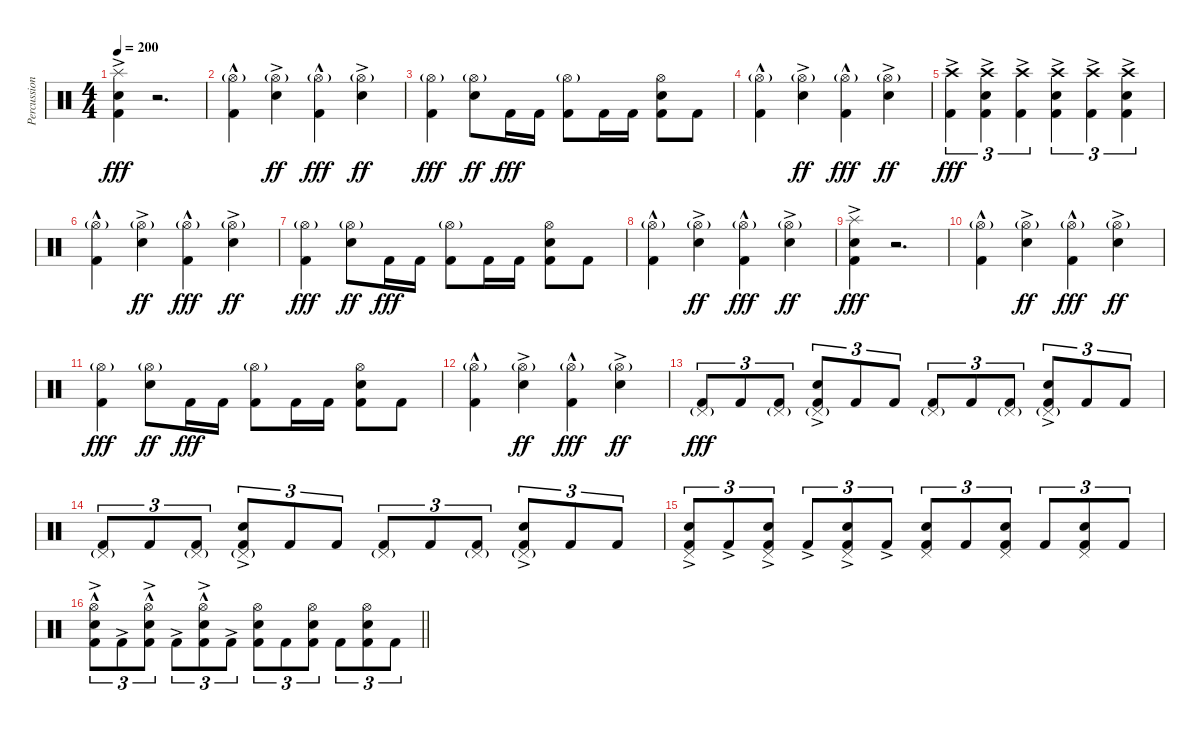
\track ("Percussion , Drums - Travis Smith" "Percussion") {instrument percussion}
\staff {score}
\articulation defaults
\ts (4 4)
\tempo 200
\clef neutral
\ks c
("Splash (hit)" "Electric Snare (hit)"{ac} "Kick (hit) 2").4{dy fff} r.2{d} |
("Hi-Hat (open)"{g} "Kick (hit) 2"{hac}).4 ("Hi-Hat (open)"{g} "Electric Snare (hit)"{ac}).4{dy ff} ("Hi-Hat (open)"{g} "Kick (hit) 2"{hac}).4{dy fff} ("Hi-Hat (open)"{g} "Electric Snare (hit)"{ac}).4{dy ff} |
("Hi-Hat (open)"{g} "Kick (hit) 2").4{dy fff} ("Hi-Hat (open)"{g} "Electric Snare (hit)").8{dy ff} "Kick (hit) 2".16{dy fff} "Kick (hit) 2".16 ("Hi-Hat (open)"{g} "Kick (hit) 2").8 "Kick (hit) 2".16 "Kick (hit) 2".16 ("Hi-Hat (open)" "Electric Snare (hit)" "Kick (hit) 2").8 "Kick (hit) 2".8 |
("Hi-Hat (open)"{g} "Kick (hit) 2"{hac}).4 ("Hi-Hat (open)"{g} "Electric Snare (hit)"{ac}).4{dy ff} ("Hi-Hat (open)"{g} "Kick (hit) 2"{hac}).4{dy fff} ("Hi-Hat (open)"{g} "Electric Snare (hit)"{ac}).4{dy ff} |
("Crash high (hit)"{ac} "Kick (hit) 2").4{tu (3 2) dy fff} ("Crash high (hit)"{ac} "Electric Snare (hit)"{ac} "Kick (hit) 2").4{tu (3 2)} ("Crash high (hit)"{ac} "Kick (hit) 2").4{tu (3 2)} ("Crash high (hit)"{ac} "Electric Snare (hit)"{ac} "Kick (hit) 2").4{tu (3 2)} ("Crash high (hit)"{ac} "Kick (hit) 2").4{tu (3 2)} ("Crash high (hit)"{ac} "Electric Snare (hit)"{ac} "Kick (hit) 2").4{tu (3 2)} |
("Hi-Hat (open)"{g} "Kick (hit) 2"{hac}).4 ("Hi-Hat (open)"{g} "Electric Snare (hit)"{ac}).4{dy ff} ("Hi-Hat (open)"{g} "Kick (hit) 2"{hac}).4{dy fff} ("Hi-Hat (open)"{g} "Electric Snare (hit)"{ac}).4{dy ff} |
("Hi-Hat (open)"{g} "Kick (hit) 2").4{dy fff} ("Hi-Hat (open)"{g} "Electric Snare (hit)").8{dy ff} "Kick (hit) 2".16{dy fff} "Kick (hit) 2".16 ("Hi-Hat (open)"{g} "Kick (hit) 2").8 "Kick (hit) 2".16 "Kick (hit) 2".16 ("Hi-Hat (open)" "Electric Snare (hit)" "Kick (hit) 2").8 "Kick (hit) 2".8 |
("Hi-Hat (open)"{g} "Kick (hit) 2"{hac}).4 ("Hi-Hat (open)"{g} "Electric Snare (hit)"{ac}).4{dy ff} ("Hi-Hat (open)"{g} "Kick (hit) 2"{hac}).4{dy fff} ("Hi-Hat (open)"{g} "Electric Snare (hit)"{ac}).4{dy ff} |
("Splash (hit)" "Electric Snare (hit)"{ac} "Kick (hit) 2").4{dy fff} r.2{d} |
("Hi-Hat (open)"{g} "Kick (hit) 2"{hac}).4 ("Hi-Hat (open)"{g} "Electric Snare (hit)"{ac}).4{dy ff} ("Hi-Hat (open)"{g} "Kick (hit) 2"{hac}).4{dy fff} ("Hi-Hat (open)"{g} "Electric Snare (hit)"{ac}).4{dy ff} |
("Hi-Hat (open)"{g} "Kick (hit) 2").4{dy fff} ("Hi-Hat (open)"{g} "Electric Snare (hit)").8{dy ff} "Kick (hit) 2".16{dy fff} "Kick (hit) 2".16 ("Hi-Hat (open)"{g} "Kick (hit) 2").8 "Kick (hit) 2".16 "Kick (hit) 2".16 ("Hi-Hat (open)" "Electric Snare (hit)" "Kick (hit) 2").8 "Kick (hit) 2".8 |
("Hi-Hat (open)"{g} "Kick (hit) 2"{hac}).4 ("Hi-Hat (open)"{g} "Electric Snare (hit)"{ac}).4{dy ff} ("Hi-Hat (open)"{g} "Kick (hit) 2"{hac}).4{dy fff} ("Hi-Hat (open)"{g} "Electric Snare (hit)"{ac}).4{dy ff} |
("Pedal Hi-Hat (hit)"{g} "Kick (hit) 2").8{tu (3 2) dy fff} "Kick (hit) 2".8{tu (3 2)} ("Pedal Hi-Hat (hit)"{g} "Kick (hit) 2").8{tu (3 2)} ("Pedal Hi-Hat (hit)"{g} "Electric Snare (hit)"{ac} "Kick (hit) 2").8{tu (3 2)} "Kick (hit) 2".8{tu (3 2)} "Kick (hit) 2".8{tu (3 2)} ("Pedal Hi-Hat (hit)"{g} "Kick (hit) 2").8{tu (3 2)} "Kick (hit) 2".8{tu (3 2)} ("Pedal Hi-Hat (hit)"{g} "Kick (hit) 2").8{tu (3 2)} ("Pedal Hi-Hat (hit)"{g} "Electric Snare (hit)"{ac} "Kick (hit) 2").8{tu (3 2)} "Kick (hit) 2".8{tu (3 2)} "Kick (hit) 2".8{tu (3 2)} |
("Pedal Hi-Hat (hit)"{g} "Kick (hit) 2").8{tu (3 2)} "Kick (hit) 2".8{tu (3 2)} ("Pedal Hi-Hat (hit)"{g} "Kick (hit) 2").8{tu (3 2)} ("Pedal Hi-Hat (hit)"{g} "Electric Snare (hit)"{ac} "Kick (hit) 2").8{tu (3 2)} "Kick (hit) 2".8{tu (3 2)} "Kick (hit) 2".8{tu (3 2)} ("Pedal Hi-Hat (hit)"{g} "Kick (hit) 2").8{tu (3 2)} "Kick (hit) 2".8{tu (3 2)} ("Pedal Hi-Hat (hit)"{g} "Kick (hit) 2").8{tu (3 2)} ("Pedal Hi-Hat (hit)"{g} "Electric Snare (hit)"{ac} "Kick (hit) 2").8{tu (3 2)} "Kick (hit) 2".8{tu (3 2)} "Kick (hit) 2".8{tu (3 2)} |
("Pedal Hi-Hat (hit)" "Electric Snare (hit)" "Kick (hit) 2"{ac}).8{tu (3 2)} "Kick (hit) 2"{ac}.8{tu (3 2)} ("Pedal Hi-Hat (hit)" "Electric Snare (hit)" "Kick (hit) 2"{ac}).8{tu (3 2)} "Kick (hit) 2"{ac}.8{tu (3 2)} ("Pedal Hi-Hat (hit)" "Electric Snare (hit)" "Kick (hit) 2"{ac}).8{tu (3 2)} "Kick (hit) 2"{ac}.8{tu (3 2)} ("Pedal Hi-Hat (hit)" "Electric Snare (hit)" "Kick (hit) 2").8{tu (3 2)} "Kick (hit) 2".8{tu (3 2)} ("Pedal Hi-Hat (hit)" "Electric Snare (hit)" "Kick (hit) 2").8{tu (3 2)} "Kick (hit) 2".8{tu (3 2)} ("Pedal Hi-Hat (hit)" "Electric Snare (hit)" "Kick (hit) 2").8{tu (3 2)} "Kick (hit) 2".8{tu (3 2)} |
\barLineRight lightlight
("Hi-Hat (open)"{hac} "Electric Snare (hit)"{hac} "Kick (hit) 2"{ac}).8{tu (3 2)} "Kick (hit) 2"{ac}.8{tu (3 2)} ("Hi-Hat (open)"{hac} "Electric Snare (hit)"{hac} "Kick (hit) 2"{ac}).8{tu (3 2)} "Kick (hit) 2"{ac}.8{tu (3 2)} ("Hi-Hat (open)" "Electric Snare (hit)"{hac} "Kick (hit) 2"{ac}).8{tu (3 2)} "Kick (hit) 2"{ac}.8{tu (3 2)} ("Hi-Hat (open)" "Electric Snare (hit)" "Kick (hit) 2").8{tu (3 2)} "Kick (hit) 2".8{tu (3 2)} ("Hi-Hat (open)" "Electric Snare (hit)" "Kick (hit) 2").8{tu (3 2)} "Kick (hit) 2".8{tu (3 2)} ("Hi-Hat (open)" "Electric Snare (hit)" "Kick (hit) 2").8{tu (3 2)} "Kick (hit) 2".8{tu (3 2)}
